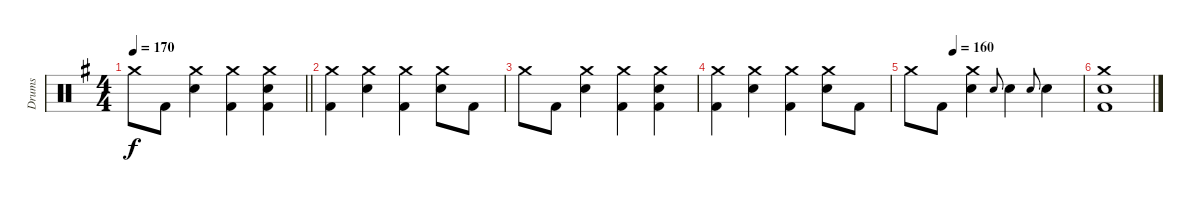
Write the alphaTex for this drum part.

\track ("Drums" "Drums") {instrument percussion}
\staff {score}
\articulation defaults
\ts (4 4)
\tempo 170
\clef neutral
\barLineRight lightlight
\ks eminor "Crash medium (hit)".8{dy f} "Kick (hit) 2".8
("Crash medium (hit)" "Snare (hit) 2").4 ("Crash medium (hit)" "Kick (hit) 2").4 ("Crash medium (hit)" "Snare (hit) 2" "Kick (hit) 2").4 |
("Crash medium (hit)" "Kick (hit) 2").4 ("Crash medium (hit)" "Snare (hit) 2").4 ("Crash medium (hit)" "Kick (hit) 2").4 ("Crash medium (hit)" "Snare (hit) 2").8 "Kick (hit) 2".8 |
"Crash medium (hit)".8 "Kick (hit) 2".8 ("Crash medium (hit)" "Snare (hit) 2").4 ("Crash medium (hit)" "Kick (hit) 2").4 ("Crash medium (hit)" "Snare (hit) 2" "Kick (hit) 2").4 |
("Crash medium (hit)" "Kick (hit) 2").4 ("Crash medium (hit)" "Snare (hit) 2").4 ("Crash medium (hit)" "Kick (hit) 2").4 ("Crash medium (hit)" "Snare (hit) 2").8 "Kick (hit) 2".8 |
\tempo (160 0.25)
"Crash medium (hit)".8 "Kick (hit) 2".8 ("Crash medium (hit)" "Snare (hit) 2").4 "Snare (hit) 2".8{gr onbeat} "Snare (hit) 2".4 "Snare (hit) 2".8{gr onbeat} "Snare (hit) 2".4 |
("Crash medium (hit)" "Snare (hit) 2" "Kick (hit) 2").1
